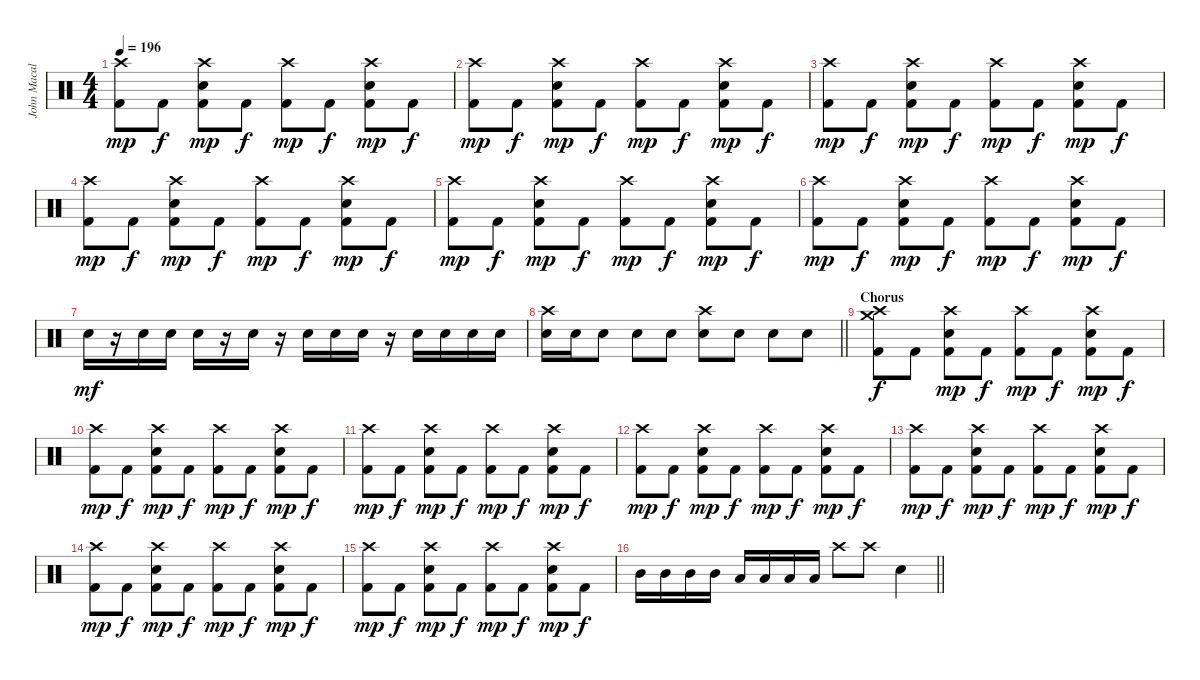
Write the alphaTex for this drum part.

\track ("John Macaluso" "John Macal") {instrument percussion}
\staff {score}
\articulation defaults
\ts (4 4)
\tempo 196
\clef neutral
\ks c
("Crash high (hit)" "Kick (hit) 2").8{dy mp} "Kick (hit) 2".8{dy f} ("Crash high (hit)" "Electric Snare (hit)" "Kick (hit) 2").8{dy mp} "Kick (hit) 2".8{dy f} ("Crash high (hit)" "Kick (hit) 2").8{dy mp} "Kick (hit) 2".8{dy f} ("Crash high (hit)" "Electric Snare (hit)" "Kick (hit) 2").8{dy mp} "Kick (hit) 2".8{dy f} |
("Crash high (hit)" "Kick (hit) 2").8{dy mp} "Kick (hit) 2".8{dy f} ("Crash high (hit)" "Electric Snare (hit)" "Kick (hit) 2").8{dy mp} "Kick (hit) 2".8{dy f} ("Crash high (hit)" "Kick (hit) 2").8{dy mp} "Kick (hit) 2".8{dy f} ("Crash high (hit)" "Electric Snare (hit)" "Kick (hit) 2").8{dy mp} "Kick (hit) 2".8{dy f} |
("Crash high (hit)" "Kick (hit) 2").8{dy mp} "Kick (hit) 2".8{dy f} ("Crash high (hit)" "Electric Snare (hit)" "Kick (hit) 2").8{dy mp} "Kick (hit) 2".8{dy f} ("Crash high (hit)" "Kick (hit) 2").8{dy mp} "Kick (hit) 2".8{dy f} ("Crash high (hit)" "Electric Snare (hit)" "Kick (hit) 2").8{dy mp} "Kick (hit) 2".8{dy f} |
("Crash high (hit)" "Kick (hit) 2").8{dy mp} "Kick (hit) 2".8{dy f} ("Crash high (hit)" "Electric Snare (hit)" "Kick (hit) 2").8{dy mp} "Kick (hit) 2".8{dy f} ("Crash high (hit)" "Kick (hit) 2").8{dy mp} "Kick (hit) 2".8{dy f} ("Crash high (hit)" "Electric Snare (hit)" "Kick (hit) 2").8{dy mp} "Kick (hit) 2".8{dy f} |
("Crash high (hit)" "Kick (hit) 2").8{dy mp} "Kick (hit) 2".8{dy f} ("Crash high (hit)" "Electric Snare (hit)" "Kick (hit) 2").8{dy mp} "Kick (hit) 2".8{dy f} ("Crash high (hit)" "Kick (hit) 2").8{dy mp} "Kick (hit) 2".8{dy f} ("Crash high (hit)" "Electric Snare (hit)" "Kick (hit) 2").8{dy mp} "Kick (hit) 2".8{dy f} |
("Crash high (hit)" "Kick (hit) 2").8{dy mp} "Kick (hit) 2".8{dy f} ("Crash high (hit)" "Electric Snare (hit)" "Kick (hit) 2").8{dy mp} "Kick (hit) 2".8{dy f} ("Crash high (hit)" "Kick (hit) 2").8{dy mp} "Kick (hit) 2".8{dy f} ("Crash high (hit)" "Electric Snare (hit)" "Kick (hit) 2").8{dy mp} "Kick (hit) 2".8{dy f} |
"Electric Snare (hit)".16{dy mf} r.16 "Electric Snare (hit)".16 "Electric Snare (hit)".16 "Electric Snare (hit)".16 r.16 "Electric Snare (hit)".16 r.16 "Electric Snare (hit)".16 "Electric Snare (hit)".16 "Electric Snare (hit)".16 r.16 "Electric Snare (hit)".16 "Electric Snare (hit)".16 "Electric Snare (hit)".16 "Electric Snare (hit)".16 |
\barLineRight lightlight
("Crash high (hit)" "Electric Snare (hit)").16 "Electric Snare (hit)".16 "Electric Snare (hit)".8 "Electric Snare (hit)".8 "Electric Snare (hit)".8 ("Crash high (hit)" "Electric Snare (hit)").8 "Electric Snare (hit)".8 "Electric Snare (hit)".8 "Electric Snare (hit)".8 |
\section ("" "Chorus")
("Crash medium (hit)" "Crash high (hit)" "Kick (hit) 2").8{dy f} "Kick (hit) 2".8 ("Crash high (hit)" "Electric Snare (hit)" "Kick (hit) 2").8{dy mp} "Kick (hit) 2".8{dy f} ("Crash high (hit)" "Kick (hit) 2").8{dy mp} "Kick (hit) 2".8{dy f} ("Crash high (hit)" "Electric Snare (hit)" "Kick (hit) 2").8{dy mp} "Kick (hit) 2".8{dy f} |
("Crash high (hit)" "Kick (hit) 2").8{dy mp} "Kick (hit) 2".8{dy f} ("Crash high (hit)" "Electric Snare (hit)" "Kick (hit) 2").8{dy mp} "Kick (hit) 2".8{dy f} ("Crash high (hit)" "Kick (hit) 2").8{dy mp} "Kick (hit) 2".8{dy f} ("Crash high (hit)" "Electric Snare (hit)" "Kick (hit) 2").8{dy mp} "Kick (hit) 2".8{dy f} |
("Crash high (hit)" "Kick (hit) 2").8{dy mp} "Kick (hit) 2".8{dy f} ("Crash high (hit)" "Electric Snare (hit)" "Kick (hit) 2").8{dy mp} "Kick (hit) 2".8{dy f} ("Crash high (hit)" "Kick (hit) 2").8{dy mp} "Kick (hit) 2".8{dy f} ("Crash high (hit)" "Electric Snare (hit)" "Kick (hit) 2").8{dy mp} "Kick (hit) 2".8{dy f} |
("Crash high (hit)" "Kick (hit) 2").8{dy mp} "Kick (hit) 2".8{dy f} ("Crash high (hit)" "Electric Snare (hit)" "Kick (hit) 2").8{dy mp} "Kick (hit) 2".8{dy f} ("Crash high (hit)" "Kick (hit) 2").8{dy mp} "Kick (hit) 2".8{dy f} ("Crash high (hit)" "Electric Snare (hit)" "Kick (hit) 2").8{dy mp} "Kick (hit) 2".8{dy f} |
("Crash high (hit)" "Kick (hit) 2").8{dy mp} "Kick (hit) 2".8{dy f} ("Crash high (hit)" "Electric Snare (hit)" "Kick (hit) 2").8{dy mp} "Kick (hit) 2".8{dy f} ("Crash high (hit)" "Kick (hit) 2").8{dy mp} "Kick (hit) 2".8{dy f} ("Crash high (hit)" "Electric Snare (hit)" "Kick (hit) 2").8{dy mp} "Kick (hit) 2".8{dy f} |
("Crash high (hit)" "Kick (hit) 2").8{dy mp} "Kick (hit) 2".8{dy f} ("Crash high (hit)" "Electric Snare (hit)" "Kick (hit) 2").8{dy mp} "Kick (hit) 2".8{dy f} ("Crash high (hit)" "Kick (hit) 2").8{dy mp} "Kick (hit) 2".8{dy f} ("Crash high (hit)" "Electric Snare (hit)" "Kick (hit) 2").8{dy mp} "Kick (hit) 2".8{dy f} |
("Crash high (hit)" "Kick (hit) 2").8{dy mp} "Kick (hit) 2".8{dy f} ("Crash high (hit)" "Electric Snare (hit)" "Kick (hit) 2").8{dy mp} "Kick (hit) 2".8{dy f} ("Crash high (hit)" "Kick (hit) 2").8{dy mp} "Kick (hit) 2".8{dy f} ("Crash high (hit)" "Electric Snare (hit)" "Kick (hit) 2").8{dy mp} "Kick (hit) 2".8{dy f} |
\barLineRight lightlight "Mid Tom (hit)".16 "Mid Tom (hit)".16 "Mid Tom (hit)".16 "Mid Tom (hit)".16 "Low Tom (hit)".16 "Low Tom (hit)".16 "Low Tom (hit)".16 "Low Tom (hit)".16 "Crash high (hit)".8 "Crash high (hit)".8 "Electric Snare (hit)".4
